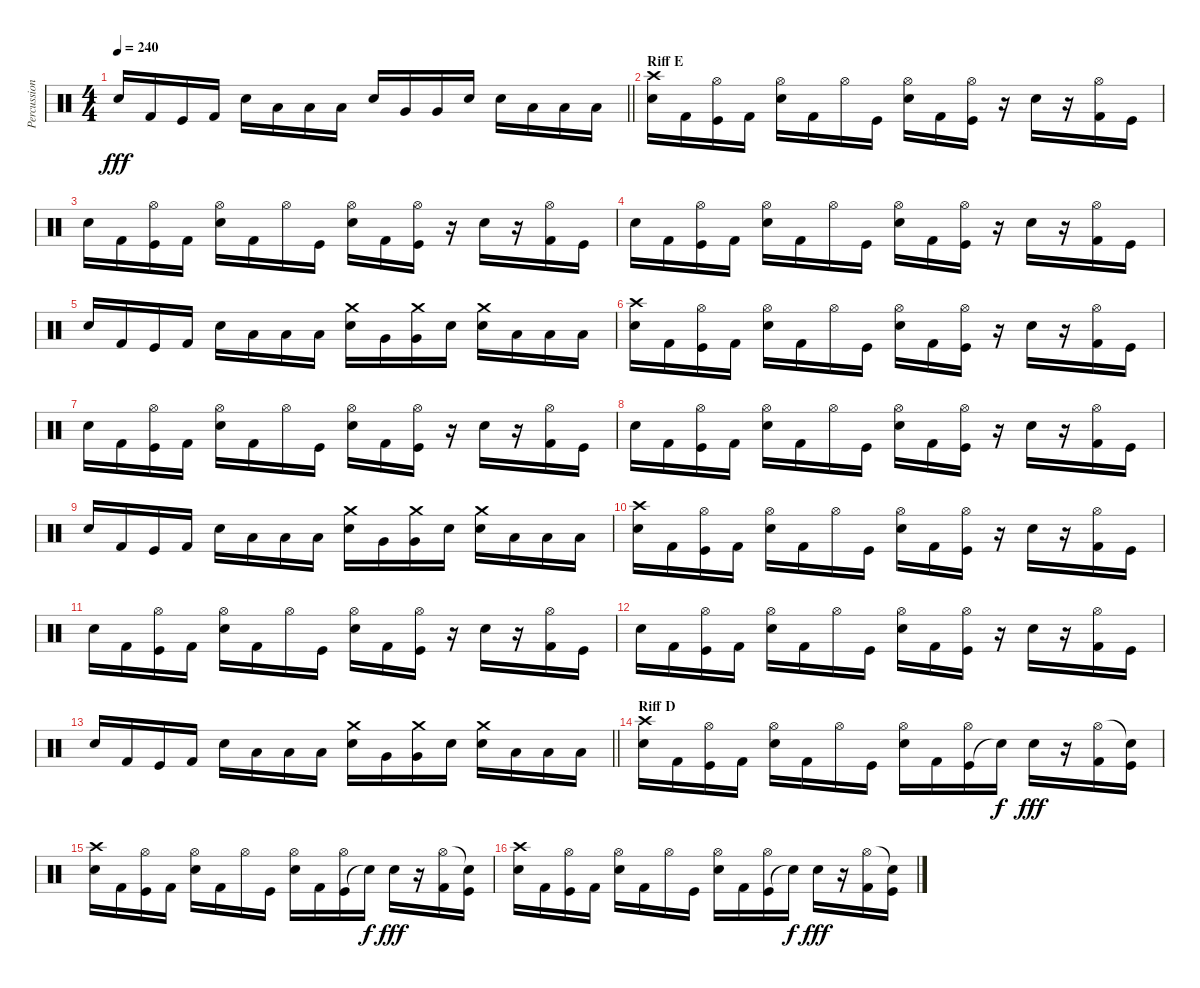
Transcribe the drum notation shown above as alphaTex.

\track ("Percussion" "Percussion") {instrument percussion}
\staff {score}
\articulation defaults
\ts (4 4)
\tempo 240
\clef neutral
\barLineRight lightlight
\ks c "Snare (hit) 2".16{dy fff} "Kick (hit) 2".16 "Kick (hit)".16 "Kick (hit) 2".16 "Snare (hit) 2".16 "Low Floor Tom (hit)".16 "Low Floor Tom (hit)".16 "Low Floor Tom (hit)".16 "Snare (hit) 2".16 "Very Low Tom (hit)".16 "Very Low Tom (hit)".16 "Snare (hit) 2".16 "Snare (hit) 2".16 "Low Tom (hit)".16 "Low Tom (hit)".16 "Low Tom (hit)".16
|
\section ("" "Riff E")
("Snare (hit) 2" "Crash high (hit)").16 "Kick (hit) 2".16 ("Kick (hit)" "Hi-Hat (open)").16 "Kick (hit) 2".16 ("Snare (hit) 2" "Hi-Hat (open)").16 "Kick (hit) 2".16 "Hi-Hat (open)".16 "Kick (hit)".16 ("Snare (hit) 2" "Hi-Hat (open)").16 "Kick (hit) 2".16 ("Kick (hit)" "Hi-Hat (open)").16 r.16 "Snare (hit) 2".16 r.16 ("Kick (hit) 2" "Hi-Hat (open)").16 "Kick (hit)".16 |
"Snare (hit) 2".16 "Kick (hit) 2".16 ("Kick (hit)" "Hi-Hat (open)").16 "Kick (hit) 2".16 ("Snare (hit) 2" "Hi-Hat (open)").16 "Kick (hit) 2".16 "Hi-Hat (open)".16 "Kick (hit)".16 ("Snare (hit) 2" "Hi-Hat (open)").16 "Kick (hit) 2".16 ("Kick (hit)" "Hi-Hat (open)").16 r.16 "Snare (hit) 2".16 r.16 ("Kick (hit) 2" "Hi-Hat (open)").16 "Kick (hit)".16 |
"Snare (hit) 2".16 "Kick (hit) 2".16 ("Kick (hit)" "Hi-Hat (open)").16 "Kick (hit) 2".16 ("Snare (hit) 2" "Hi-Hat (open)").16 "Kick (hit) 2".16 "Hi-Hat (open)".16 "Kick (hit)".16 ("Snare (hit) 2" "Hi-Hat (open)").16 "Kick (hit) 2".16 ("Kick (hit)" "Hi-Hat (open)").16 r.16 "Snare (hit) 2".16 r.16 ("Kick (hit) 2" "Hi-Hat (open)").16 "Kick (hit)".16 |
"Snare (hit) 2".16 "Kick (hit) 2".16 "Kick (hit)".16 "Kick (hit) 2".16 "Snare (hit) 2".16 "Low Floor Tom (hit)".16 "Low Floor Tom (hit)".16 "Low Floor Tom (hit)".16 ("Snare (hit) 2" "Crash medium (hit)").16 "Very Low Tom (hit)".16 ("Very Low Tom (hit)" "Crash medium (hit)").16 "Snare (hit) 2".16 ("Snare (hit) 2" "Crash medium (hit)").16 "Low Tom (hit)".16 "Low Tom (hit)".16 "Low Tom (hit)".16 |
("Snare (hit) 2" "Crash high (hit)").16 "Kick (hit) 2".16 ("Kick (hit)" "Hi-Hat (open)").16 "Kick (hit) 2".16 ("Snare (hit) 2" "Hi-Hat (open)").16 "Kick (hit) 2".16 "Hi-Hat (open)".16 "Kick (hit)".16 ("Snare (hit) 2" "Hi-Hat (open)").16 "Kick (hit) 2".16 ("Kick (hit)" "Hi-Hat (open)").16 r.16 "Snare (hit) 2".16 r.16 ("Kick (hit) 2" "Hi-Hat (open)").16 "Kick (hit)".16 |
"Snare (hit) 2".16 "Kick (hit) 2".16 ("Kick (hit)" "Hi-Hat (open)").16 "Kick (hit) 2".16 ("Snare (hit) 2" "Hi-Hat (open)").16 "Kick (hit) 2".16 "Hi-Hat (open)".16 "Kick (hit)".16 ("Snare (hit) 2" "Hi-Hat (open)").16 "Kick (hit) 2".16 ("Kick (hit)" "Hi-Hat (open)").16 r.16 "Snare (hit) 2".16 r.16 ("Kick (hit) 2" "Hi-Hat (open)").16 "Kick (hit)".16 |
"Snare (hit) 2".16 "Kick (hit) 2".16 ("Kick (hit)" "Hi-Hat (open)").16 "Kick (hit) 2".16 ("Snare (hit) 2" "Hi-Hat (open)").16 "Kick (hit) 2".16 "Hi-Hat (open)".16 "Kick (hit)".16 ("Snare (hit) 2" "Hi-Hat (open)").16 "Kick (hit) 2".16 ("Kick (hit)" "Hi-Hat (open)").16 r.16 "Snare (hit) 2".16 r.16 ("Kick (hit) 2" "Hi-Hat (open)").16 "Kick (hit)".16 |
"Snare (hit) 2".16 "Kick (hit) 2".16 "Kick (hit)".16 "Kick (hit) 2".16 "Snare (hit) 2".16 "Low Floor Tom (hit)".16 "Low Floor Tom (hit)".16 "Low Floor Tom (hit)".16 ("Snare (hit) 2" "Crash medium (hit)").16 "Very Low Tom (hit)".16 ("Very Low Tom (hit)" "Crash medium (hit)").16 "Snare (hit) 2".16 ("Snare (hit) 2" "Crash medium (hit)").16 "Low Tom (hit)".16 "Low Tom (hit)".16 "Low Tom (hit)".16 |
("Snare (hit) 2" "Crash high (hit)").16 "Kick (hit) 2".16 ("Kick (hit)" "Hi-Hat (open)").16 "Kick (hit) 2".16 ("Snare (hit) 2" "Hi-Hat (open)").16 "Kick (hit) 2".16 "Hi-Hat (open)".16 "Kick (hit)".16 ("Snare (hit) 2" "Hi-Hat (open)").16 "Kick (hit) 2".16 ("Kick (hit)" "Hi-Hat (open)").16 r.16 "Snare (hit) 2".16 r.16 ("Kick (hit) 2" "Hi-Hat (open)").16 "Kick (hit)".16 |
"Snare (hit) 2".16 "Kick (hit) 2".16 ("Kick (hit)" "Hi-Hat (open)").16 "Kick (hit) 2".16 ("Snare (hit) 2" "Hi-Hat (open)").16 "Kick (hit) 2".16 "Hi-Hat (open)".16 "Kick (hit)".16 ("Snare (hit) 2" "Hi-Hat (open)").16 "Kick (hit) 2".16 ("Kick (hit)" "Hi-Hat (open)").16 r.16 "Snare (hit) 2".16 r.16 ("Kick (hit) 2" "Hi-Hat (open)").16 "Kick (hit)".16 |
"Snare (hit) 2".16 "Kick (hit) 2".16 ("Kick (hit)" "Hi-Hat (open)").16 "Kick (hit) 2".16 ("Snare (hit) 2" "Hi-Hat (open)").16 "Kick (hit) 2".16 "Hi-Hat (open)".16 "Kick (hit)".16 ("Snare (hit) 2" "Hi-Hat (open)").16 "Kick (hit) 2".16 ("Kick (hit)" "Hi-Hat (open)").16 r.16 "Snare (hit) 2".16 r.16 ("Kick (hit) 2" "Hi-Hat (open)").16 "Kick (hit)".16 |
\barLineRight lightlight "Snare (hit) 2".16 "Kick (hit) 2".16 "Kick (hit)".16 "Kick (hit) 2".16 "Snare (hit) 2".16 "Low Floor Tom (hit)".16 "Low Floor Tom (hit)".16 "Low Floor Tom (hit)".16
("Snare (hit) 2" "Crash medium (hit)").16 "Very Low Tom (hit)".16 ("Very Low Tom (hit)" "Crash medium (hit)").16 "Snare (hit) 2".16 ("Snare (hit) 2" "Crash medium (hit)").16 "Low Tom (hit)".16 "Low Tom (hit)".16 "Low Tom (hit)".16 |
\section ("" "Riff D")
("Snare (hit) 2" "Crash high (hit)").16 "Kick (hit) 2".16 ("Kick (hit)" "Hi-Hat (open)").16 "Kick (hit) 2".16 ("Snare (hit) 2" "Hi-Hat (open)").16 "Kick (hit) 2".16 "Hi-Hat (open)".16 "Kick (hit)".16 ("Snare (hit) 2" "Hi-Hat (open)").16 "Kick (hit) 2".16 ("Kick (hit)" "Hi-Hat (open)").16 "Snare (hit)"{t}.16{dy f} "Snare (hit) 2".16{dy fff} r.16 ("Kick (hit) 2" "Hi-Hat (open)").16 ("Kick (hit)" "Snare (hit)"{t}).16 |
("Snare (hit) 2" "Crash high (hit)").16 "Kick (hit) 2".16 ("Kick (hit)" "Hi-Hat (open)").16 "Kick (hit) 2".16 ("Snare (hit) 2" "Hi-Hat (open)").16 "Kick (hit) 2".16 "Hi-Hat (open)".16 "Kick (hit)".16 ("Snare (hit) 2" "Hi-Hat (open)").16 "Kick (hit) 2".16 ("Kick (hit)" "Hi-Hat (open)").16 "Snare (hit)"{t}.16{dy f} "Snare (hit) 2".16{dy fff} r.16 ("Kick (hit) 2" "Hi-Hat (open)").16 ("Kick (hit)" "Snare (hit)"{t}).16 |
("Snare (hit) 2" "Crash high (hit)").16 "Kick (hit) 2".16 ("Kick (hit)" "Hi-Hat (open)").16 "Kick (hit) 2".16 ("Snare (hit) 2" "Hi-Hat (open)").16 "Kick (hit) 2".16 "Hi-Hat (open)".16 "Kick (hit)".16 ("Snare (hit) 2" "Hi-Hat (open)").16 "Kick (hit) 2".16 ("Kick (hit)" "Hi-Hat (open)").16 "Snare (hit)"{t}.16{dy f} "Snare (hit) 2".16{dy fff} r.16 ("Kick (hit) 2" "Hi-Hat (open)").16 ("Kick (hit)" "Snare (hit)"{t}).16
